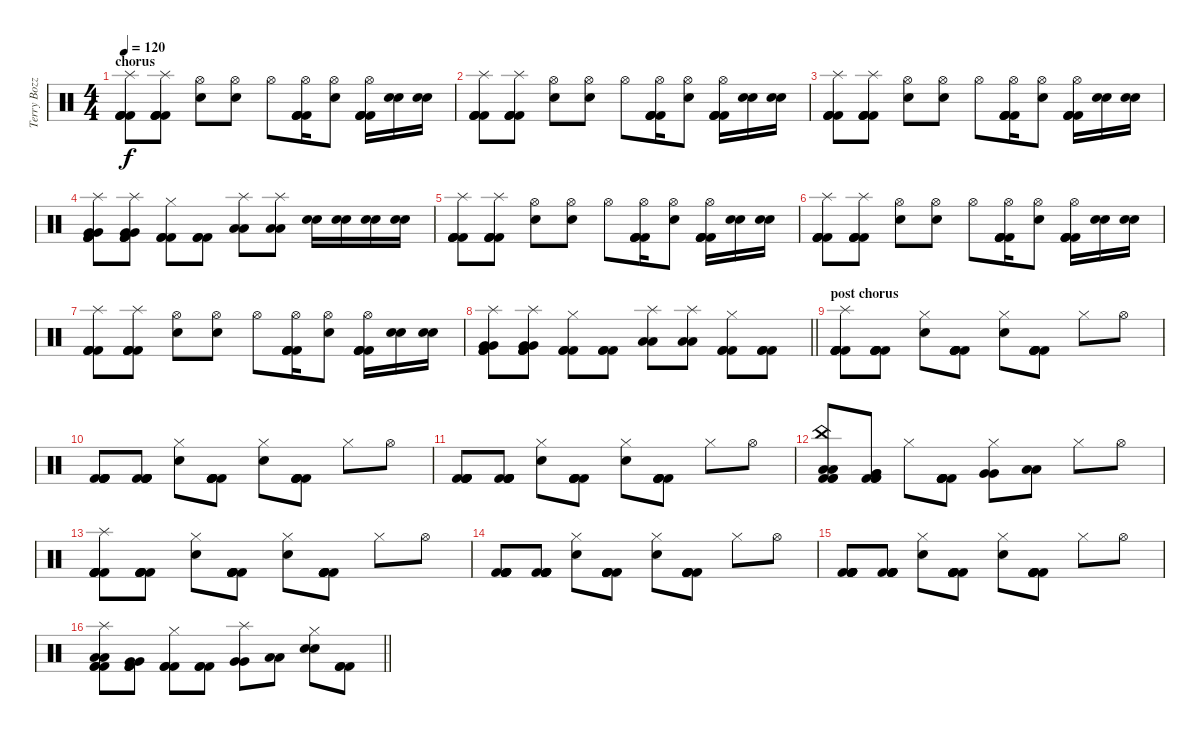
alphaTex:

\track ("Terry Bozzio" "Terry Bozz") {instrument percussion}
\staff {score}
\articulation defaults
\ts (4 4)
\section ("" "chorus")
\tempo 120
\clef neutral
\ks c
("Splash (hit)" "Kick (hit) 2" "Kick (hit) 2" "Kick (hit) 2" "Kick (hit) 2").8{dy f} ("Splash (hit)" "Kick (hit) 2" "Kick (hit) 2" "Kick (hit) 2" "Kick (hit) 2").8 ("Hi-Hat (open)" "Snare (hit) 2").8 ("Hi-Hat (open)" "Snare (hit) 2").8 "Hi-Hat (open)".8 ("Hi-Hat (open)" "Kick (hit) 2" "Kick (hit) 2" "Kick (hit) 2" "Kick (hit) 2").16 ("Hi-Hat (open)" "Snare (hit) 2").8 ("Hi-Hat (open)" "Kick (hit) 2" "Kick (hit) 2" "Kick (hit) 2" "Kick (hit) 2").16 ("Snare (hit) 2" "Snare (hit) 2").16 ("Snare (hit) 2" "Snare (hit) 2").16 |
("Splash (hit)" "Kick (hit) 2" "Kick (hit) 2" "Kick (hit) 2" "Kick (hit) 2").8 ("Splash (hit)" "Kick (hit) 2" "Kick (hit) 2" "Kick (hit) 2" "Kick (hit) 2").8 ("Hi-Hat (open)" "Snare (hit) 2").8 ("Hi-Hat (open)" "Snare (hit) 2").8 "Hi-Hat (open)".8 ("Hi-Hat (open)" "Kick (hit) 2" "Kick (hit) 2" "Kick (hit) 2" "Kick (hit) 2").16 ("Hi-Hat (open)" "Snare (hit) 2").8 ("Hi-Hat (open)" "Kick (hit) 2" "Kick (hit) 2" "Kick (hit) 2" "Kick (hit) 2").16 ("Snare (hit) 2" "Snare (hit) 2").16 ("Snare (hit) 2" "Snare (hit) 2").16 |
("Splash (hit)" "Kick (hit) 2" "Kick (hit) 2" "Kick (hit) 2" "Kick (hit) 2").8 ("Splash (hit)" "Kick (hit) 2" "Kick (hit) 2" "Kick (hit) 2" "Kick (hit) 2").8 ("Hi-Hat (open)" "Snare (hit) 2").8 ("Hi-Hat (open)" "Snare (hit) 2").8 "Hi-Hat (open)".8 ("Hi-Hat (open)" "Kick (hit) 2" "Kick (hit) 2" "Kick (hit) 2" "Kick (hit) 2").16 ("Hi-Hat (open)" "Snare (hit) 2").8 ("Hi-Hat (open)" "Kick (hit) 2" "Kick (hit) 2" "Kick (hit) 2" "Kick (hit) 2").16 ("Snare (hit) 2" "Snare (hit) 2").16 ("Snare (hit) 2" "Snare (hit) 2").16 |
("Splash (hit)" "Very Low Tom (hit)" "Very Low Tom (hit)" "Kick (hit) 2" "Kick (hit) 2" "Kick (hit) 2").8 ("Splash (hit)" "Very Low Tom (hit)" "Very Low Tom (hit)" "Kick (hit) 2" "Kick (hit) 2" "Kick (hit) 2").8 ("Hi-Hat (closed)" "Kick (hit) 2" "Kick (hit) 2" "Kick (hit) 2").8 ("Kick (hit) 2" "Kick (hit) 2" "Kick (hit) 2").8 ("Splash (hit)" "Low Floor Tom (hit)" "Low Floor Tom (hit)").8 ("Splash (hit)" "Low Floor Tom (hit)" "Low Floor Tom (hit)").8 ("Snare (hit) 2" "Snare (hit) 2").16 ("Snare (hit) 2" "Snare (hit) 2").16 ("Snare (hit) 2" "Snare (hit) 2").16 ("Snare (hit) 2" "Snare (hit) 2").16 |
("Splash (hit)" "Kick (hit) 2" "Kick (hit) 2" "Kick (hit) 2" "Kick (hit) 2").8 ("Splash (hit)" "Kick (hit) 2" "Kick (hit) 2" "Kick (hit) 2" "Kick (hit) 2").8 ("Hi-Hat (open)" "Snare (hit) 2").8 ("Hi-Hat (open)" "Snare (hit) 2").8 "Hi-Hat (open)".8 ("Hi-Hat (open)" "Kick (hit) 2" "Kick (hit) 2" "Kick (hit) 2" "Kick (hit) 2").16 ("Hi-Hat (open)" "Snare (hit) 2").8 ("Hi-Hat (open)" "Kick (hit) 2" "Kick (hit) 2" "Kick (hit) 2" "Kick (hit) 2").16 ("Snare (hit) 2" "Snare (hit) 2").16 ("Snare (hit) 2" "Snare (hit) 2").16 |
("Splash (hit)" "Kick (hit) 2" "Kick (hit) 2" "Kick (hit) 2" "Kick (hit) 2").8 ("Splash (hit)" "Kick (hit) 2" "Kick (hit) 2" "Kick (hit) 2" "Kick (hit) 2").8 ("Hi-Hat (open)" "Snare (hit) 2").8 ("Hi-Hat (open)" "Snare (hit) 2").8 "Hi-Hat (open)".8 ("Hi-Hat (open)" "Kick (hit) 2" "Kick (hit) 2" "Kick (hit) 2" "Kick (hit) 2").16 ("Hi-Hat (open)" "Snare (hit) 2").8 ("Hi-Hat (open)" "Kick (hit) 2" "Kick (hit) 2" "Kick (hit) 2" "Kick (hit) 2").16 ("Snare (hit) 2" "Snare (hit) 2").16 ("Snare (hit) 2" "Snare (hit) 2").16 |
("Splash (hit)" "Kick (hit) 2" "Kick (hit) 2" "Kick (hit) 2" "Kick (hit) 2").8 ("Splash (hit)" "Kick (hit) 2" "Kick (hit) 2" "Kick (hit) 2" "Kick (hit) 2").8 ("Hi-Hat (open)" "Snare (hit) 2").8 ("Hi-Hat (open)" "Snare (hit) 2").8 "Hi-Hat (open)".8 ("Hi-Hat (open)" "Kick (hit) 2" "Kick (hit) 2" "Kick (hit) 2" "Kick (hit) 2").16 ("Hi-Hat (open)" "Snare (hit) 2").8 ("Hi-Hat (open)" "Kick (hit) 2" "Kick (hit) 2" "Kick (hit) 2" "Kick (hit) 2").16 ("Snare (hit) 2" "Snare (hit) 2").16 ("Snare (hit) 2" "Snare (hit) 2").16 |
\barLineRight lightlight
("Splash (hit)" "Very Low Tom (hit)" "Very Low Tom (hit)" "Kick (hit) 2" "Kick (hit) 2" "Kick (hit) 2").8 ("Splash (hit)" "Very Low Tom (hit)" "Very Low Tom (hit)" "Kick (hit) 2" "Kick (hit) 2" "Kick (hit) 2").8 ("Hi-Hat (closed)" "Kick (hit) 2" "Kick (hit) 2" "Kick (hit) 2").8 ("Kick (hit) 2" "Kick (hit) 2" "Kick (hit) 2").8 ("Splash (hit)" "Low Floor Tom (hit)" "Low Floor Tom (hit)").8 ("Splash (hit)" "Low Floor Tom (hit)" "Low Floor Tom (hit)").8 ("Hi-Hat (closed)" "Kick (hit) 2" "Kick (hit) 2" "Kick (hit) 2").8 ("Kick (hit) 2" "Kick (hit) 2" "Kick (hit) 2").8 |
\section ("" "post chorus")
("Splash (hit)" "Kick (hit) 2" "Kick (hit) 2" "Kick (hit) 2" "Kick (hit) 2" "Kick (hit) 2").8 ("Kick (hit) 2" "Kick (hit) 2" "Kick (hit) 2" "Kick (hit) 2" "Kick (hit) 2").8 ("Hi-Hat (closed)" "Snare (hit) 2").8 ("Kick (hit) 2" "Kick (hit) 2" "Kick (hit) 2" "Kick (hit) 2" "Kick (hit) 2").8 ("Hi-Hat (closed)" "Snare (hit) 2").8 ("Kick (hit) 2" "Kick (hit) 2" "Kick (hit) 2" "Kick (hit) 2" "Kick (hit) 2").8 "Hi-Hat (closed)".8 "Hi-Hat (open)".8 |
("Kick (hit) 2" "Kick (hit) 2" "Kick (hit) 2" "Kick (hit) 2" "Kick (hit) 2").8 ("Kick (hit) 2" "Kick (hit) 2" "Kick (hit) 2" "Kick (hit) 2" "Kick (hit) 2").8 ("Hi-Hat (closed)" "Snare (hit) 2").8 ("Kick (hit) 2" "Kick (hit) 2" "Kick (hit) 2" "Kick (hit) 2" "Kick (hit) 2").8 ("Hi-Hat (closed)" "Snare (hit) 2").8 ("Kick (hit) 2" "Kick (hit) 2" "Kick (hit) 2" "Kick (hit) 2" "Kick (hit) 2").8 "Hi-Hat (closed)".8 "Hi-Hat (open)".8 |
("Kick (hit) 2" "Kick (hit) 2" "Kick (hit) 2" "Kick (hit) 2" "Kick (hit) 2").8 ("Kick (hit) 2" "Kick (hit) 2" "Kick (hit) 2" "Kick (hit) 2" "Kick (hit) 2").8 ("Hi-Hat (closed)" "Snare (hit) 2").8 ("Kick (hit) 2" "Kick (hit) 2" "Kick (hit) 2" "Kick (hit) 2" "Kick (hit) 2").8 ("Hi-Hat (closed)" "Snare (hit) 2").8 ("Kick (hit) 2" "Kick (hit) 2" "Kick (hit) 2" "Kick (hit) 2" "Kick (hit) 2").8 "Hi-Hat (closed)".8 "Hi-Hat (open)".8 |
("China (hit)" "Low Tom (hit)" "Low Tom (hit)" "Kick (hit) 2" "Kick (hit) 2" "Kick (hit) 2").8 ("Very Low Tom (hit)" "Very Low Tom (hit)" "Kick (hit) 2" "Kick (hit) 2" "Kick (hit) 2").8 "Hi-Hat (closed)".8 ("Kick (hit) 2" "Kick (hit) 2" "Kick (hit) 2" "Kick (hit) 2" "Kick (hit) 2").8 ("Hi-Hat (closed)" "Very Low Tom (hit)" "Very Low Tom (hit)").8 ("Low Floor Tom (hit)" "Low Floor Tom (hit)").8 "Hi-Hat (closed)".8 "Hi-Hat (open)".8 |
("Splash (hit)" "Kick (hit) 2" "Kick (hit) 2" "Kick (hit) 2" "Kick (hit) 2" "Kick (hit) 2").8 ("Kick (hit) 2" "Kick (hit) 2" "Kick (hit) 2" "Kick (hit) 2" "Kick (hit) 2").8 ("Hi-Hat (closed)" "Snare (hit) 2").8 ("Kick (hit) 2" "Kick (hit) 2" "Kick (hit) 2" "Kick (hit) 2" "Kick (hit) 2").8 ("Hi-Hat (closed)" "Snare (hit) 2").8 ("Kick (hit) 2" "Kick (hit) 2" "Kick (hit) 2" "Kick (hit) 2" "Kick (hit) 2").8 "Hi-Hat (closed)".8 "Hi-Hat (open)".8 |
("Kick (hit) 2" "Kick (hit) 2" "Kick (hit) 2" "Kick (hit) 2" "Kick (hit) 2").8 ("Kick (hit) 2" "Kick (hit) 2" "Kick (hit) 2" "Kick (hit) 2" "Kick (hit) 2").8 ("Hi-Hat (closed)" "Snare (hit) 2").8 ("Kick (hit) 2" "Kick (hit) 2" "Kick (hit) 2" "Kick (hit) 2" "Kick (hit) 2").8 ("Hi-Hat (closed)" "Snare (hit) 2").8 ("Kick (hit) 2" "Kick (hit) 2" "Kick (hit) 2" "Kick (hit) 2" "Kick (hit) 2").8 "Hi-Hat (closed)".8 "Hi-Hat (open)".8 |
("Kick (hit) 2" "Kick (hit) 2" "Kick (hit) 2" "Kick (hit) 2" "Kick (hit) 2").8 ("Kick (hit) 2" "Kick (hit) 2" "Kick (hit) 2" "Kick (hit) 2" "Kick (hit) 2").8 ("Hi-Hat (closed)" "Snare (hit) 2").8 ("Kick (hit) 2" "Kick (hit) 2" "Kick (hit) 2" "Kick (hit) 2" "Kick (hit) 2").8 ("Hi-Hat (closed)" "Snare (hit) 2").8 ("Kick (hit) 2" "Kick (hit) 2" "Kick (hit) 2" "Kick (hit) 2" "Kick (hit) 2").8 "Hi-Hat (closed)".8 "Hi-Hat (open)".8 |
\barLineRight lightlight
("Splash (hit)" "Low Tom (hit)" "Low Tom (hit)" "Kick (hit) 2" "Kick (hit) 2" "Kick (hit) 2").8 ("Very Low Tom (hit)" "Very Low Tom (hit)" "Kick (hit) 2" "Kick (hit) 2" "Kick (hit) 2").8 ("Hi-Hat (closed)" "Kick (hit) 2" "Kick (hit) 2" "Kick (hit) 2").8 ("Kick (hit) 2" "Kick (hit) 2" "Kick (hit) 2").8 ("Splash (hit)" "Very Low Tom (hit)" "Very Low Tom (hit)").8 ("Low Floor Tom (hit)" "Low Floor Tom (hit)").8 ("Hi-Hat (closed)" "Snare (hit) 2" "Snare (hit) 2").8 ("Kick (hit) 2" "Kick (hit) 2" "Kick (hit) 2").8
